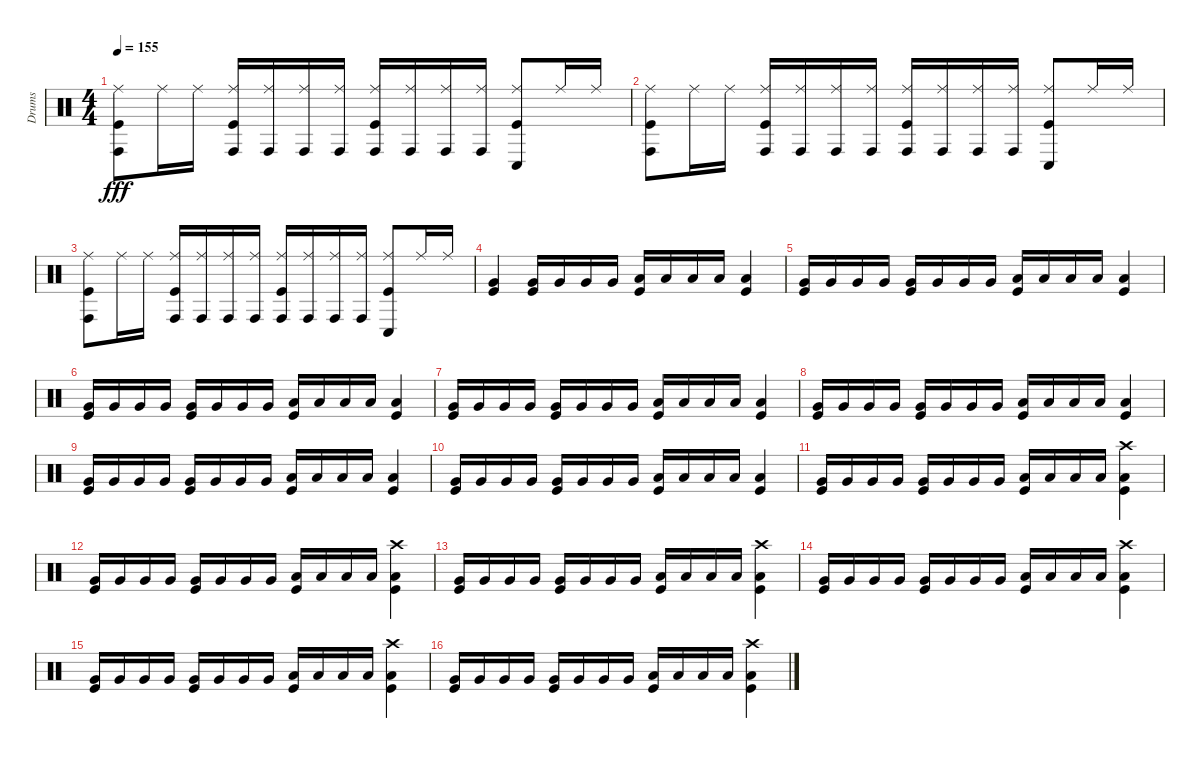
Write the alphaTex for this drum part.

\track ("Drums" "Drums") {instrument percussion}
\staff {score}
\articulation defaults
\ts (4 4)
\tempo 155
\clef neutral
\ks c
("Ride (middle)" "Conga high (hit)" "Kick (hit)").8{dy fff} "Ride (middle)".16 "Ride (middle)".16 ("Ride (middle)" "Conga high (hit)" "Kick (hit)").16 ("Ride (middle)" "Conga high (hit)").16 ("Ride (middle)" "Conga high (hit)").16 ("Ride (middle)" "Conga high (hit)").16 ("Ride (middle)" "Conga high (hit)" "Kick (hit)").16 ("Ride (middle)" "Conga high (hit)").16 ("Ride (middle)" "Conga high (hit)").16 ("Ride (middle)" "Conga high (hit)").16 ("Ride (middle)" "Conga low (hit)" "Kick (hit)").8 "Ride (middle)".16 "Ride (middle)".16 |
("Ride (middle)" "Conga high (hit)" "Kick (hit)").8 "Ride (middle)".16 "Ride (middle)".16 ("Ride (middle)" "Conga high (hit)" "Kick (hit)").16 ("Ride (middle)" "Conga high (hit)").16 ("Ride (middle)" "Conga high (hit)").16 ("Ride (middle)" "Conga high (hit)").16 ("Ride (middle)" "Conga high (hit)" "Kick (hit)").16 ("Ride (middle)" "Conga high (hit)").16 ("Ride (middle)" "Conga high (hit)").16 ("Ride (middle)" "Conga high (hit)").16 ("Ride (middle)" "Conga low (hit)" "Kick (hit)").8 "Ride (middle)".16 "Ride (middle)".16 |
("Ride (middle)" "Conga high (hit)" "Kick (hit)").8 "Ride (middle)".16 "Ride (middle)".16 ("Ride (middle)" "Conga high (hit)" "Kick (hit)").16 ("Ride (middle)" "Conga high (hit)").16 ("Ride (middle)" "Conga high (hit)").16 ("Ride (middle)" "Conga high (hit)").16 ("Ride (middle)" "Conga high (hit)" "Kick (hit)").16 ("Ride (middle)" "Conga high (hit)").16 ("Ride (middle)" "Conga high (hit)").16 ("Ride (middle)" "Conga high (hit)").16 ("Ride (middle)" "Conga low (hit)" "Kick (hit)").8 "Ride (middle)".16 "Ride (middle)".16 |
("Very Low Tom (hit)" "Kick (hit)").4 ("Very Low Tom (hit)" "Kick (hit)").16 "Very Low Tom (hit)".16 "Very Low Tom (hit)".16 "Very Low Tom (hit)".16 ("Low Floor Tom (hit)" "Kick (hit)").16 "Low Floor Tom (hit)".16 "Low Floor Tom (hit)".16 "Low Floor Tom (hit)".16 ("Low Floor Tom (hit)" "Kick (hit)").4 |
("Very Low Tom (hit)" "Kick (hit)").16 "Very Low Tom (hit)".16 "Very Low Tom (hit)".16 "Very Low Tom (hit)".16 ("Very Low Tom (hit)" "Kick (hit)").16 "Very Low Tom (hit)".16 "Very Low Tom (hit)".16 "Very Low Tom (hit)".16 ("Low Floor Tom (hit)" "Kick (hit)").16 "Low Floor Tom (hit)".16 "Low Floor Tom (hit)".16 "Low Floor Tom (hit)".16 ("Low Floor Tom (hit)" "Kick (hit)").4 |
("Very Low Tom (hit)" "Kick (hit)").16 "Very Low Tom (hit)".16 "Very Low Tom (hit)".16 "Very Low Tom (hit)".16 ("Very Low Tom (hit)" "Kick (hit)").16 "Very Low Tom (hit)".16 "Very Low Tom (hit)".16 "Very Low Tom (hit)".16 ("Low Floor Tom (hit)" "Kick (hit)").16 "Low Floor Tom (hit)".16 "Low Floor Tom (hit)".16 "Low Floor Tom (hit)".16 ("Low Floor Tom (hit)" "Kick (hit)").4 |
("Very Low Tom (hit)" "Kick (hit)").16 "Very Low Tom (hit)".16 "Very Low Tom (hit)".16 "Very Low Tom (hit)".16 ("Very Low Tom (hit)" "Kick (hit)").16 "Very Low Tom (hit)".16 "Very Low Tom (hit)".16 "Very Low Tom (hit)".16 ("Low Floor Tom (hit)" "Kick (hit)").16 "Low Floor Tom (hit)".16 "Low Floor Tom (hit)".16 "Low Floor Tom (hit)".16 ("Low Floor Tom (hit)" "Kick (hit)").4 |
("Very Low Tom (hit)" "Kick (hit)").16 "Very Low Tom (hit)".16 "Very Low Tom (hit)".16 "Very Low Tom (hit)".16 ("Very Low Tom (hit)" "Kick (hit)").16 "Very Low Tom (hit)".16 "Very Low Tom (hit)".16 "Very Low Tom (hit)".16 ("Low Floor Tom (hit)" "Kick (hit)").16 "Low Floor Tom (hit)".16 "Low Floor Tom (hit)".16 "Low Floor Tom (hit)".16 ("Low Floor Tom (hit)" "Kick (hit)").4 |
("Very Low Tom (hit)" "Kick (hit)").16 "Very Low Tom (hit)".16 "Very Low Tom (hit)".16 "Very Low Tom (hit)".16 ("Very Low Tom (hit)" "Kick (hit)").16 "Very Low Tom (hit)".16 "Very Low Tom (hit)".16 "Very Low Tom (hit)".16 ("Low Floor Tom (hit)" "Kick (hit)").16 "Low Floor Tom (hit)".16 "Low Floor Tom (hit)".16 "Low Floor Tom (hit)".16 ("Low Floor Tom (hit)" "Kick (hit)").4 |
("Very Low Tom (hit)" "Kick (hit)").16 "Very Low Tom (hit)".16 "Very Low Tom (hit)".16 "Very Low Tom (hit)".16 ("Very Low Tom (hit)" "Kick (hit)").16 "Very Low Tom (hit)".16 "Very Low Tom (hit)".16 "Very Low Tom (hit)".16 ("Low Floor Tom (hit)" "Kick (hit)").16 "Low Floor Tom (hit)".16 "Low Floor Tom (hit)".16 "Low Floor Tom (hit)".16 ("Low Floor Tom (hit)" "Kick (hit)").4 |
("Very Low Tom (hit)" "Kick (hit)").16 "Very Low Tom (hit)".16 "Very Low Tom (hit)".16 "Very Low Tom (hit)".16 ("Very Low Tom (hit)" "Kick (hit)").16 "Very Low Tom (hit)".16 "Very Low Tom (hit)".16 "Very Low Tom (hit)".16 ("Low Floor Tom (hit)" "Kick (hit)").16 "Low Floor Tom (hit)".16 "Low Floor Tom (hit)".16 "Low Floor Tom (hit)".16 ("Crash high (hit)" "Low Floor Tom (hit)" "Kick (hit)").4 |
("Very Low Tom (hit)" "Kick (hit)").16 "Very Low Tom (hit)".16 "Very Low Tom (hit)".16 "Very Low Tom (hit)".16 ("Very Low Tom (hit)" "Kick (hit)").16 "Very Low Tom (hit)".16 "Very Low Tom (hit)".16 "Very Low Tom (hit)".16 ("Low Floor Tom (hit)" "Kick (hit)").16 "Low Floor Tom (hit)".16 "Low Floor Tom (hit)".16 "Low Floor Tom (hit)".16 ("Crash high (hit)" "Low Floor Tom (hit)" "Kick (hit)").4 |
("Very Low Tom (hit)" "Kick (hit)").16 "Very Low Tom (hit)".16 "Very Low Tom (hit)".16 "Very Low Tom (hit)".16 ("Very Low Tom (hit)" "Kick (hit)").16 "Very Low Tom (hit)".16 "Very Low Tom (hit)".16 "Very Low Tom (hit)".16 ("Low Floor Tom (hit)" "Kick (hit)").16 "Low Floor Tom (hit)".16 "Low Floor Tom (hit)".16 "Low Floor Tom (hit)".16 ("Crash high (hit)" "Low Floor Tom (hit)" "Kick (hit)").4 |
("Very Low Tom (hit)" "Kick (hit)").16 "Very Low Tom (hit)".16 "Very Low Tom (hit)".16 "Very Low Tom (hit)".16 ("Very Low Tom (hit)" "Kick (hit)").16 "Very Low Tom (hit)".16 "Very Low Tom (hit)".16 "Very Low Tom (hit)".16 ("Low Floor Tom (hit)" "Kick (hit)").16 "Low Floor Tom (hit)".16 "Low Floor Tom (hit)".16 "Low Floor Tom (hit)".16 ("Crash high (hit)" "Low Floor Tom (hit)" "Kick (hit)").4 |
("Very Low Tom (hit)" "Kick (hit)").16 "Very Low Tom (hit)".16 "Very Low Tom (hit)".16 "Very Low Tom (hit)".16 ("Very Low Tom (hit)" "Kick (hit)").16 "Very Low Tom (hit)".16 "Very Low Tom (hit)".16 "Very Low Tom (hit)".16 ("Low Floor Tom (hit)" "Kick (hit)").16 "Low Floor Tom (hit)".16 "Low Floor Tom (hit)".16 "Low Floor Tom (hit)".16 ("Crash high (hit)" "Low Floor Tom (hit)" "Kick (hit)").4 |
("Very Low Tom (hit)" "Kick (hit)").16 "Very Low Tom (hit)".16 "Very Low Tom (hit)".16 "Very Low Tom (hit)".16 ("Very Low Tom (hit)" "Kick (hit)").16 "Very Low Tom (hit)".16 "Very Low Tom (hit)".16 "Very Low Tom (hit)".16 ("Low Floor Tom (hit)" "Kick (hit)").16 "Low Floor Tom (hit)".16 "Low Floor Tom (hit)".16 "Low Floor Tom (hit)".16 ("Crash high (hit)" "Low Floor Tom (hit)" "Kick (hit)").4
